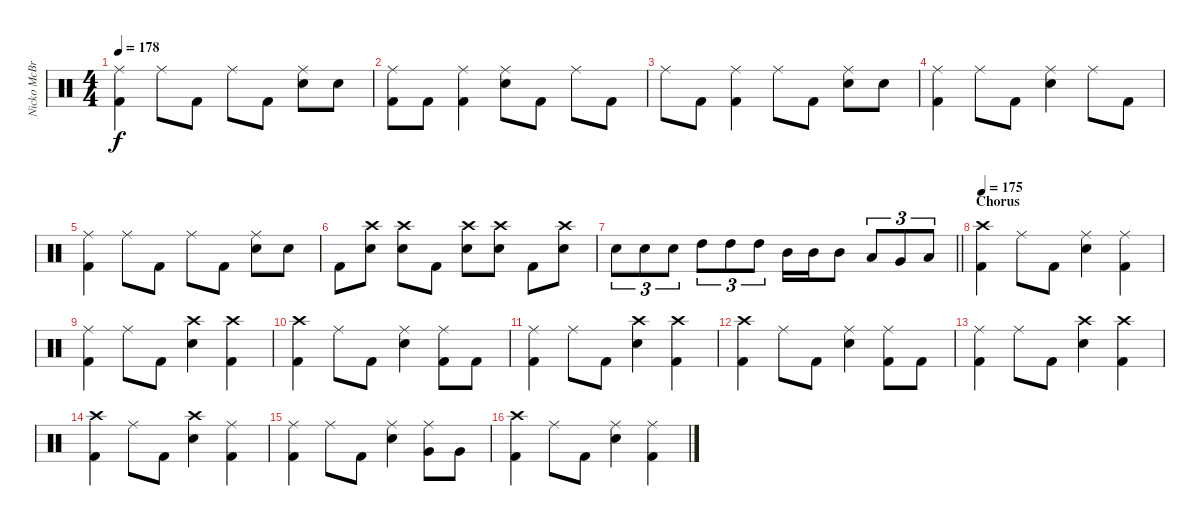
\track ("Nicko McBrian" "Nicko McBr") {instrument percussion}
\staff {score}
\articulation defaults
\ts (4 4)
\tempo 178
\clef neutral
\ks c
("Ride (middle)" "Kick (hit) 2").4{dy f} "Ride (middle)".8 "Kick (hit) 2".8 "Ride (middle)".8 "Kick (hit) 2".8 ("Ride (middle)" "Electric Snare (hit)").8 "Electric Snare (hit)".8 |
("Ride (middle)" "Kick (hit) 2").8 "Kick (hit) 2".8 ("Ride (middle)" "Kick (hit) 2").4 ("Ride (middle)" "Electric Snare (hit)").8 "Kick (hit) 2".8 "Ride (middle)".8 "Kick (hit) 2".8 |
"Ride (middle)".8 "Kick (hit) 2".8 ("Ride (middle)" "Kick (hit) 2").4 "Ride (middle)".8 "Kick (hit) 2".8 ("Ride (middle)" "Electric Snare (hit)").8 "Electric Snare (hit)".8 |
("Ride (middle)" "Kick (hit) 2").4 "Ride (middle)".8 "Kick (hit) 2".8 ("Ride (middle)" "Electric Snare (hit)").4 "Ride (middle)".8 "Kick (hit) 2".8 |
("Ride (middle)" "Kick (hit) 2").4 "Ride (middle)".8 "Kick (hit) 2".8 "Ride (middle)".8 "Kick (hit) 2".8 ("Ride (middle)" "Electric Snare (hit)").8 "Electric Snare (hit)".8 |
"Kick (hit) 2".8 ("Crash high (hit)" "Electric Snare (hit)").8 ("Crash high (hit)" "Electric Snare (hit)").8 "Kick (hit) 2".8 ("Crash high (hit)" "Electric Snare (hit)").8 ("Crash high (hit)" "Electric Snare (hit)").8 "Kick (hit) 2".8 ("Crash high (hit)" "Electric Snare (hit)").8 |
\barLineRight lightlight "Electric Snare (hit)".8{tu (3 2)} "Electric Snare (hit)".8{tu (3 2)} "Electric Snare (hit)".8{tu (3 2)} "High Tom (hit)".8{tu (3 2)} "High Tom (hit)".8{tu (3 2)} "High Tom (hit)".8{tu (3 2)} "Mid Tom (hit)".16 "Mid Tom (hit)".16 "Mid Tom (hit)".8 "Low Tom (hit)".8{tu (3 2)} "Very Low Tom (hit)".8{tu (3 2)} "Low Floor Tom (hit)".8{tu (3 2)}
|
\section ("" "Chorus")
\tempo 175
("Crash high (hit)" "Kick (hit) 2").4 "Ride (middle)".8 "Kick (hit) 2".8 ("Ride (middle)" "Electric Snare (hit)").4 ("Ride (middle)" "Kick (hit) 2").4 |
("Ride (middle)" "Kick (hit) 2").4 "Ride (middle)".8 "Kick (hit) 2".8 ("Crash high (hit)" "Electric Snare (hit)").4 ("Crash high (hit)" "Kick (hit) 2").4 |
("Crash high (hit)" "Kick (hit) 2").4 "Ride (middle)".8 "Kick (hit) 2".8 ("Ride (middle)" "Electric Snare (hit)").4 ("Ride (middle)" "Kick (hit) 2").8 "Kick (hit) 2".8 |
("Ride (middle)" "Kick (hit) 2").4 "Ride (middle)".8 "Kick (hit) 2".8 ("Crash high (hit)" "Electric Snare (hit)").4 ("Crash high (hit)" "Kick (hit) 2").4 |
("Crash high (hit)" "Kick (hit) 2").4 "Ride (middle)".8 "Kick (hit) 2".8 ("Ride (middle)" "Electric Snare (hit)").4 ("Ride (middle)" "Kick (hit) 2").8 "Kick (hit) 2".8 |
("Ride (middle)" "Kick (hit) 2").4 "Ride (middle)".8 "Kick (hit) 2".8 ("Crash high (hit)" "Electric Snare (hit)").4 ("Crash high (hit)" "Kick (hit) 2").4 |
("Crash high (hit)" "Kick (hit) 2").4 "Ride (middle)".8 "Kick (hit) 2".8 ("Crash high (hit)" "Electric Snare (hit)").4 ("Ride (middle)" "Kick (hit) 2").4 |
("Ride (middle)" "Kick (hit) 2").4 "Ride (middle)".8 "Kick (hit) 2".8 ("Ride (middle)" "Electric Snare (hit)").4 ("Ride (middle)" "Very Low Tom (hit)").8 "Very Low Tom (hit)".8 |
("Crash high (hit)" "Kick (hit) 2").4 "Ride (middle)".8 "Kick (hit) 2".8 ("Ride (middle)" "Electric Snare (hit)").4 ("Ride (middle)" "Kick (hit) 2").4
